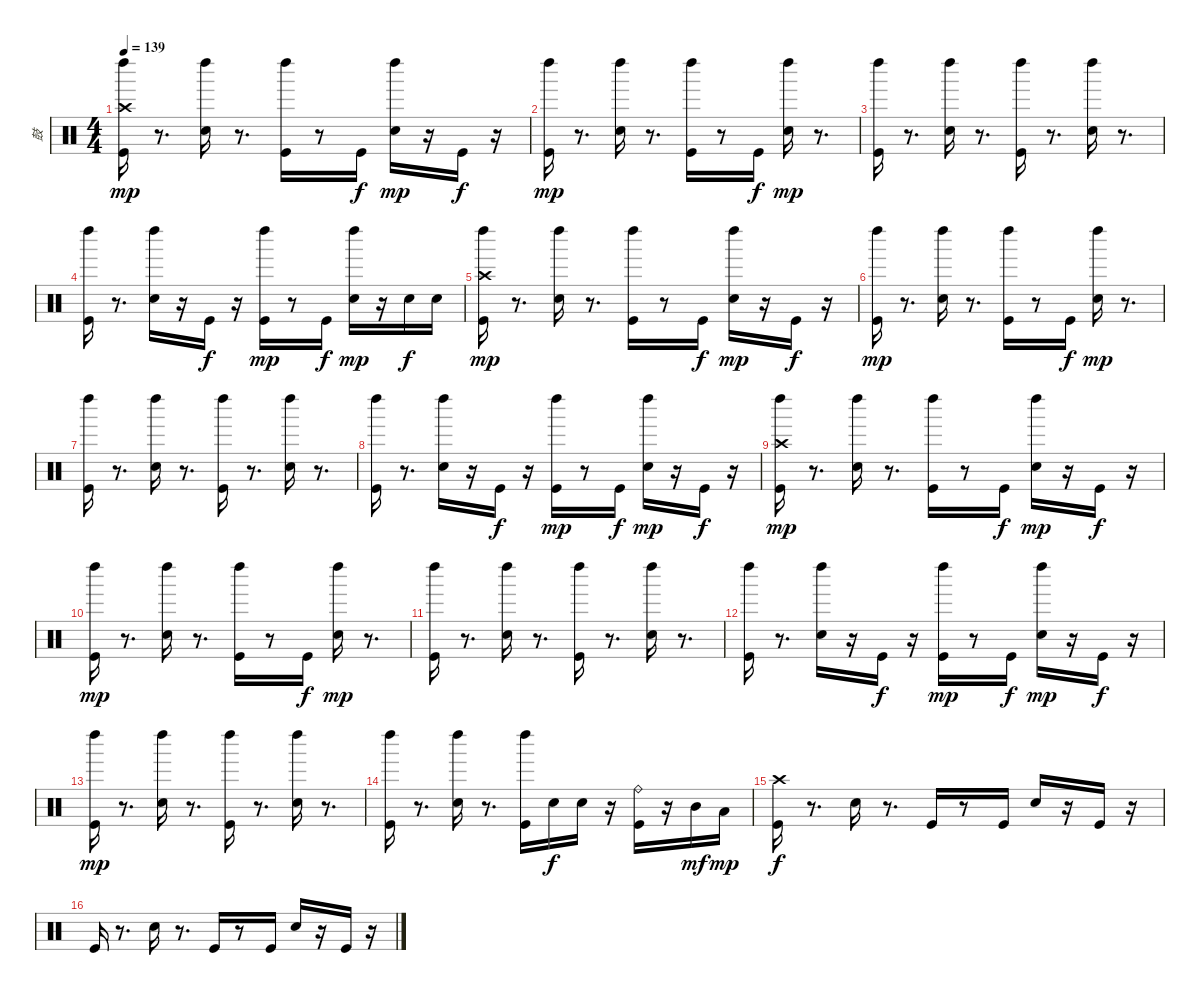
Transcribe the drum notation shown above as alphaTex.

\track ("鼓" "鼓") {instrument percussion}
\staff {score}
\articulation defaults
\ts (4 4)
\tempo 139
\clef neutral
\ks c
("Crash high (hit)" "Kick (hit)" "Left Maraca (hit)").16{dy mp} r.8{d} ("Left Maraca (hit)" "Electric Snare (hit)").16 r.8{d} ("Kick (hit)" "Left Maraca (hit)").16 r.8 "Kick (hit)".16{dy f} ("Electric Snare (hit)" "Left Maraca (hit)").16{dy mp} r.16 "Kick (hit)".16{dy f} r.16 |
("Kick (hit)" "Left Maraca (hit)").16{dy mp} r.8{d} ("Left Maraca (hit)" "Electric Snare (hit)").16 r.8{d} ("Kick (hit)" "Left Maraca (hit)").16 r.8 "Kick (hit)".16{dy f} ("Electric Snare (hit)" "Left Maraca (hit)").16{dy mp} r.8{d} |
("Left Maraca (hit)" "Kick (hit)").16 r.8{d} ("Electric Snare (hit)" "Left Maraca (hit)").16 r.8{d} ("Kick (hit)" "Left Maraca (hit)").16 r.8{d} ("Left Maraca (hit)" "Electric Snare (hit)").16 r.8{d} |
("Left Maraca (hit)" "Kick (hit)").16 r.8{d} ("Electric Snare (hit)" "Left Maraca (hit)").16 r.16 "Kick (hit)".16{dy f} r.16 ("Left Maraca (hit)" "Kick (hit)").16{dy mp} r.8 "Kick (hit)".16{dy f} ("Electric Snare (hit)" "Left Maraca (hit)").16{dy mp} r.16 "Electric Snare (hit)".16{dy f} "Electric Snare (hit)".16 |
("Crash high (hit)" "Kick (hit)" "Left Maraca (hit)").16{dy mp} r.8{d} ("Left Maraca (hit)" "Electric Snare (hit)").16 r.8{d} ("Kick (hit)" "Left Maraca (hit)").16 r.8 "Kick (hit)".16{dy f} ("Electric Snare (hit)" "Left Maraca (hit)").16{dy mp} r.16 "Kick (hit)".16{dy f} r.16 |
("Left Maraca (hit)" "Kick (hit)").16{dy mp} r.8{d} ("Left Maraca (hit)" "Electric Snare (hit)").16 r.8{d} ("Left Maraca (hit)" "Kick (hit)").16 r.8 "Kick (hit)".16{dy f} ("Left Maraca (hit)" "Electric Snare (hit)").16{dy mp} r.8{d} |
("Kick (hit)" "Left Maraca (hit)").16 r.8{d} ("Left Maraca (hit)" "Electric Snare (hit)").16 r.8{d} ("Kick (hit)" "Left Maraca (hit)").16 r.8{d} ("Left Maraca (hit)" "Electric Snare (hit)").16 r.8{d} |
("Left Maraca (hit)" "Kick (hit)").16 r.8{d} ("Electric Snare (hit)" "Left Maraca (hit)").16 r.16 "Kick (hit)".16{dy f} r.16 ("Kick (hit)" "Left Maraca (hit)").16{dy mp} r.8 "Kick (hit)".16{dy f} ("Left Maraca (hit)" "Electric Snare (hit)").16{dy mp} r.16 "Kick (hit)".16{dy f} r.16 |
("Kick (hit)" "Crash high (hit)" "Left Maraca (hit)").16{dy mp} r.8{d} ("Left Maraca (hit)" "Electric Snare (hit)").16 r.8{d} ("Kick (hit)" "Left Maraca (hit)").16 r.8 "Kick (hit)".16{dy f} ("Electric Snare (hit)" "Left Maraca (hit)").16{dy mp} r.16 "Kick (hit)".16{dy f} r.16 |
("Left Maraca (hit)" "Kick (hit)").16{dy mp} r.8{d} ("Electric Snare (hit)" "Left Maraca (hit)").16 r.8{d} ("Left Maraca (hit)" "Kick (hit)").16 r.8 "Kick (hit)".16{dy f} ("Left Maraca (hit)" "Electric Snare (hit)").16{dy mp} r.8{d} |
("Kick (hit)" "Left Maraca (hit)").16 r.8{d} ("Left Maraca (hit)" "Electric Snare (hit)").16 r.8{d} ("Kick (hit)" "Left Maraca (hit)").16 r.8{d} ("Left Maraca (hit)" "Electric Snare (hit)").16 r.8{d} |
("Kick (hit)" "Left Maraca (hit)").16 r.8{d} ("Left Maraca (hit)" "Electric Snare (hit)").16 r.16 "Kick (hit)".16{dy f} r.16 ("Left Maraca (hit)" "Kick (hit)").16{dy mp} r.8 "Kick (hit)".16{dy f} ("Left Maraca (hit)" "Electric Snare (hit)").16{dy mp} r.16 "Kick (hit)".16{dy f} r.16 |
("Kick (hit)" "Left Maraca (hit)").16{dy mp} r.8{d} ("Electric Snare (hit)" "Left Maraca (hit)").16 r.8{d} ("Kick (hit)" "Left Maraca (hit)").16 r.8{d} ("Electric Snare (hit)" "Left Maraca (hit)").16 r.8{d} |
("Left Maraca (hit)" "Kick (hit)").16 r.8{d} ("Left Maraca (hit)" "Electric Snare (hit)").16 r.8{d} ("Kick (hit)" "Left Maraca (hit)").16 "Electric Snare (hit)".16{dy f} "Electric Snare (hit)".16 r.16 ("Ride (bell)" "Kick (hit)").16 r.16 "Mid Tom (hit)".16{dy mf balance 12} "Low Tom (hit)".16{dy mp} |
("Crash high (hit)" "Kick (hit)").16{dy f balance 8} r.8{d} "Electric Snare (hit)".16{balance 10} r.8{d} "Kick (hit)".16{balance 8} r.8 "Kick (hit)".16 "Electric Snare (hit)".16{balance 10} r.16 "Kick (hit)".16{balance 8} r.16 |
"Kick (hit)".16 r.8{d} "Electric Snare (hit)".16{balance 10} r.8{d} "Kick (hit)".16{balance 8} r.8 "Kick (hit)".16 "Electric Snare (hit)".16{balance 10} r.16 "Kick (hit)".16{balance 8} r.16
